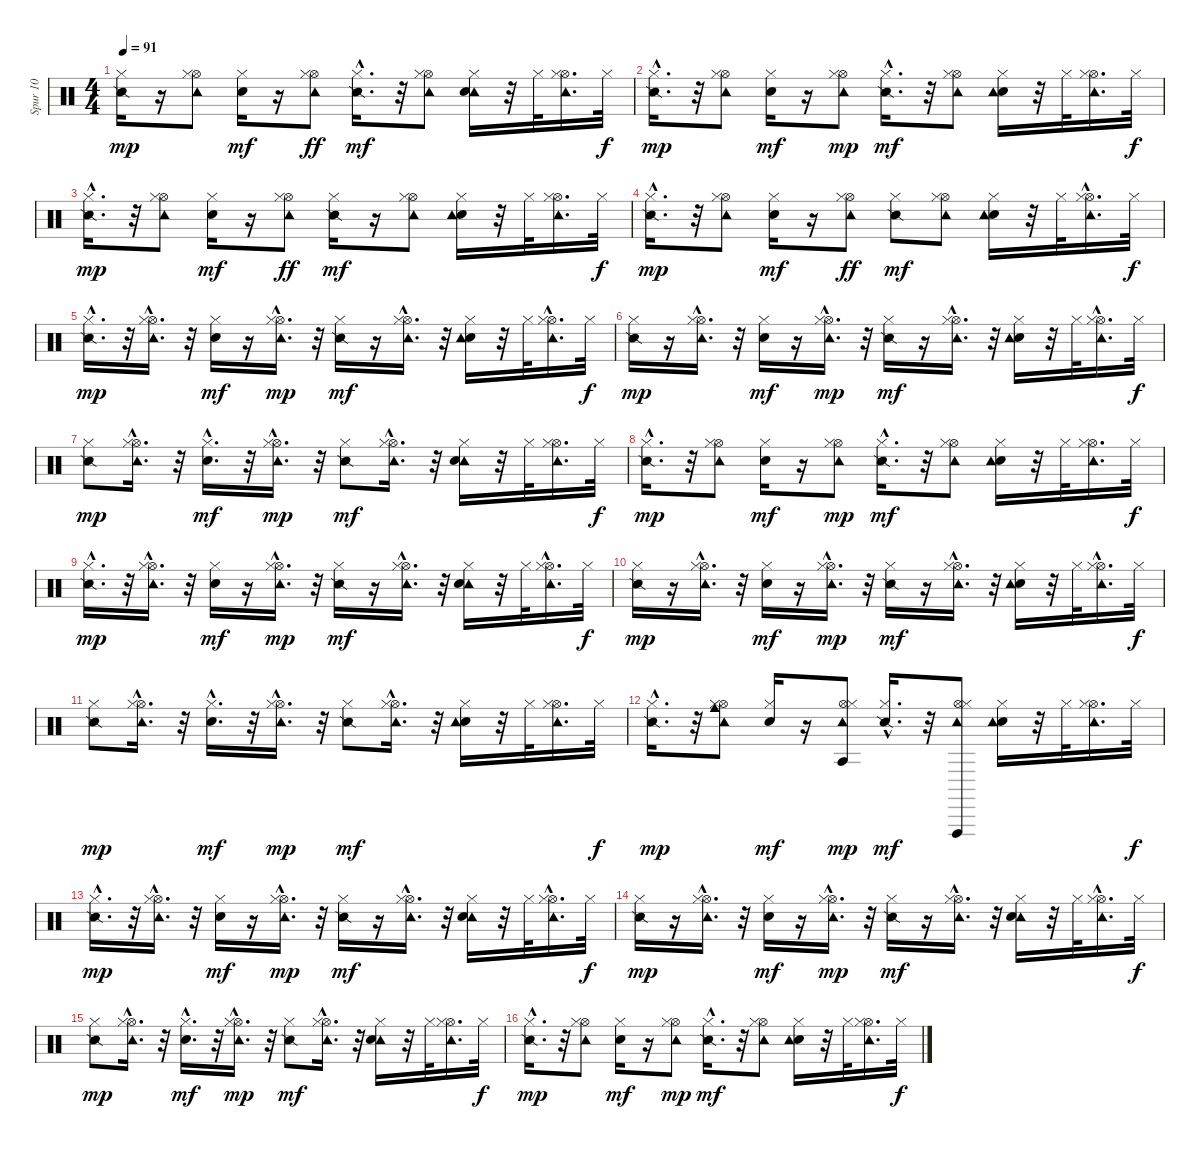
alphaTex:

\track ("Spur 10" "Spur 10") {instrument percussion}
\staff {score}
\articulation defaults
\ts (4 4)
\tempo 91
\clef neutral
\ks c
("Snare (side stick) 2" "Hi-Hat (closed)").16{dy mp} r.16 ("Tambourine (hit)" "Hi-Hat (open)" "Hi-Hat (closed)").8 ("Electric Snare (hit)" "Hi-Hat (closed)").16{dy mf} r.16 ("Tambourine (hit)" "Hi-Hat (open)" "Hi-Hat (closed)").8{dy ff} ("Snare (side stick) 2"{hac} "Hi-Hat (closed)").16{d dy mf} r.32 ("Tambourine (hit)" "Hi-Hat (open)" "Hi-Hat (closed)").8 ("Tambourine (hit)" "Electric Snare (hit)" "Hi-Hat (closed)").16 r.32 "Hi-Hat (closed)".32 ("Tambourine (hit)" "Hi-Hat (open)" "Hi-Hat (closed)").16{d} "Hi-Hat (closed)".32{dy f} |
("Snare (side stick) 2"{hac} "Hi-Hat (closed)").16{d dy mp} r.32 ("Tambourine (hit)" "Hi-Hat (open)" "Hi-Hat (closed)").8 ("Electric Snare (hit)" "Hi-Hat (closed)").16{dy mf} r.16 ("Tambourine (hit)" "Hi-Hat (open)" "Hi-Hat (closed)").8{dy mp} ("Snare (side stick) 2"{hac} "Hi-Hat (closed)").16{d dy mf} r.32 ("Tambourine (hit)" "Hi-Hat (open)" "Hi-Hat (closed)").8 ("Electric Snare (hit)" "Tambourine (hit)" "Hi-Hat (closed)").16 r.32 "Hi-Hat (closed)".32 ("Tambourine (hit)" "Hi-Hat (open)" "Hi-Hat (closed)").16{d} "Hi-Hat (closed)".32{dy f} |
("Snare (side stick) 2"{hac} "Hi-Hat (closed)").16{d dy mp} r.32 ("Tambourine (hit)" "Hi-Hat (open)" "Hi-Hat (closed)").8 ("Electric Snare (hit)" "Hi-Hat (closed)").16{dy mf} r.16 ("Tambourine (hit)" "Hi-Hat (open)" "Hi-Hat (closed)").8{dy ff} ("Snare (side stick) 2" "Hi-Hat (closed)").16{dy mf} r.16 ("Tambourine (hit)" "Hi-Hat (open)" "Hi-Hat (closed)").8 ("Electric Snare (hit)" "Tambourine (hit)" "Hi-Hat (closed)").16 r.32 "Hi-Hat (closed)".32 ("Tambourine (hit)" "Hi-Hat (open)" "Hi-Hat (closed)").16{d} "Hi-Hat (closed)".32{dy f} |
("Snare (side stick) 2"{hac} "Hi-Hat (closed)").16{d dy mp} r.32 ("Tambourine (hit)" "Hi-Hat (open)" "Hi-Hat (closed)").8 ("Electric Snare (hit)" "Hi-Hat (closed)").16{dy mf} r.16 ("Tambourine (hit)" "Hi-Hat (open)" "Hi-Hat (closed)").8{dy ff} ("Snare (side stick) 2" "Hi-Hat (closed)").8{dy mf} ("Tambourine (hit)" "Hi-Hat (open)" "Hi-Hat (closed)").8 ("Electric Snare (hit)" "Tambourine (hit)" "Hi-Hat (closed)").16 r.32 "Hi-Hat (closed)".32 ("Tambourine (hit)" "Hi-Hat (open)"{hac} "Hi-Hat (closed)").16{d} "Hi-Hat (closed)".32{dy f} |
("Snare (side stick) 2"{hac} "Hi-Hat (closed)").16{d dy mp} r.32 ("Tambourine (hit)" "Hi-Hat (open)"{hac} "Hi-Hat (closed)").16{d} r.32 ("Electric Snare (hit)" "Hi-Hat (closed)").16{dy mf} r.16 ("Tambourine (hit)" "Hi-Hat (open)"{hac} "Hi-Hat (closed)").16{d dy mp} r.32 ("Snare (side stick) 2" "Hi-Hat (closed)").16{dy mf} r.16 ("Tambourine (hit)" "Hi-Hat (open)"{hac} "Hi-Hat (closed)").16{d} r.32 ("Electric Snare (hit)" "Tambourine (hit)" "Hi-Hat (closed)").16 r.32 "Hi-Hat (closed)".32 ("Tambourine (hit)" "Hi-Hat (open)"{hac} "Hi-Hat (closed)").16{d} "Hi-Hat (closed)".32{dy f} |
("Snare (side stick) 2" "Hi-Hat (closed)").16{dy mp} r.16 ("Tambourine (hit)" "Hi-Hat (open)"{hac} "Hi-Hat (closed)").16{d} r.32 ("Electric Snare (hit)" "Hi-Hat (closed)").16{dy mf} r.16 ("Tambourine (hit)" "Hi-Hat (open)"{hac} "Hi-Hat (closed)").16{d dy mp} r.32 ("Snare (side stick) 2" "Hi-Hat (closed)").16{dy mf} r.16 ("Tambourine (hit)" "Hi-Hat (open)"{hac} "Hi-Hat (closed)").16{d} r.32 ("Electric Snare (hit)" "Tambourine (hit)" "Hi-Hat (closed)").16 r.32 "Hi-Hat (closed)".32 ("Tambourine (hit)" "Hi-Hat (open)"{hac} "Hi-Hat (closed)").16{d} "Hi-Hat (closed)".32{dy f} |
("Snare (side stick) 2" "Hi-Hat (closed)").8{dy mp} ("Tambourine (hit)" "Hi-Hat (open)"{hac} "Hi-Hat (closed)").16{d} r.32 ("Electric Snare (hit)"{hac} "Hi-Hat (closed)").16{d dy mf} r.32 ("Tambourine (hit)" "Hi-Hat (open)"{hac} "Hi-Hat (closed)").16{d dy mp} r.32 ("Snare (side stick) 2" "Hi-Hat (closed)").8{dy mf} ("Tambourine (hit)" "Hi-Hat (open)"{hac} "Hi-Hat (closed)").16{d} r.32 ("Tambourine (hit)" "Electric Snare (hit)" "Hi-Hat (closed)").16 r.32 "Hi-Hat (closed)".32 ("Tambourine (hit)" "Hi-Hat (open)" "Hi-Hat (closed)").16{d} "Hi-Hat (closed)".32{dy f} |
("Snare (side stick) 2"{hac} "Hi-Hat (closed)").16{d dy mp} r.32 ("Tambourine (hit)" "Hi-Hat (open)" "Hi-Hat (closed)").8 ("Electric Snare (hit)" "Hi-Hat (closed)").16{dy mf} r.16 ("Tambourine (hit)" "Hi-Hat (open)" "Hi-Hat (closed)").8{dy mp} ("Snare (side stick) 2"{hac} "Hi-Hat (closed)").16{d dy mf} r.32 ("Tambourine (hit)" "Hi-Hat (open)" "Hi-Hat (closed)").8 ("Electric Snare (hit)" "Tambourine (hit)" "Hi-Hat (closed)").16 r.32 "Hi-Hat (closed)".32 ("Tambourine (hit)" "Hi-Hat (open)" "Hi-Hat (closed)").16{d} "Hi-Hat (closed)".32{dy f} |
("Snare (side stick) 2"{hac} "Hi-Hat (closed)").16{d dy mp} r.32 ("Tambourine (hit)" "Hi-Hat (open)"{hac} "Hi-Hat (closed)").16{d} r.32 ("Electric Snare (hit)" "Hi-Hat (closed)").16{dy mf} r.16 ("Tambourine (hit)" "Hi-Hat (open)"{hac} "Hi-Hat (closed)").16{d dy mp} r.32 ("Snare (side stick) 2" "Hi-Hat (closed)").16{dy mf} r.16 ("Tambourine (hit)" "Hi-Hat (open)"{hac} "Hi-Hat (closed)").16{d} r.32 ("Tambourine (hit)" "Electric Snare (hit)" "Hi-Hat (closed)").16 r.32 "Hi-Hat (closed)".32 ("Tambourine (hit)" "Hi-Hat (open)"{hac} "Hi-Hat (closed)").16{d} "Hi-Hat (closed)".32{dy f} |
("Snare (side stick) 2" "Hi-Hat (closed)").16{dy mp} r.16 ("Tambourine (hit)" "Hi-Hat (open)"{hac} "Hi-Hat (closed)").16{d} r.32 ("Electric Snare (hit)" "Hi-Hat (closed)").16{dy mf} r.16 ("Tambourine (hit)" "Hi-Hat (open)"{hac} "Hi-Hat (closed)").16{d dy mp} r.32 ("Snare (side stick) 2" "Hi-Hat (closed)").16{dy mf} r.16 ("Tambourine (hit)" "Hi-Hat (open)"{hac} "Hi-Hat (closed)").16{d} r.32 ("Electric Snare (hit)" "Tambourine (hit)" "Hi-Hat (closed)").16 r.32 "Hi-Hat (closed)".32 ("Tambourine (hit)" "Hi-Hat (open)"{hac} "Hi-Hat (closed)").16{d} "Hi-Hat (closed)".32{dy f} |
("Snare (side stick) 2" "Hi-Hat (closed)").8{dy mp} ("Tambourine (hit)" "Hi-Hat (open)"{hac} "Hi-Hat (closed)").16{d} r.32 ("Electric Snare (hit)"{hac} "Hi-Hat (closed)").16{d dy mf} r.32 ("Tambourine (hit)" "Hi-Hat (open)"{hac} "Hi-Hat (closed)").16{d dy mp} r.32 ("Snare (side stick) 2" "Hi-Hat (closed)").8{dy mf} ("Tambourine (hit)" "Hi-Hat (open)"{hac} "Hi-Hat (closed)").16{d} r.32 ("Electric Snare (hit)" "Tambourine (hit)" "Hi-Hat (closed)").16 r.32 "Hi-Hat (closed)".32 ("Tambourine (hit)" "Hi-Hat (open)" "Hi-Hat (closed)").16{d} "Hi-Hat (closed)".32{dy f} |
("Snare (side stick) 2"{hac} "Hi-Hat (closed)").16{d dy mp} r.32 ("Tambourine (hit)" "Hi-Hat (open)" "Cowbell medium (hit)" "Hi-Hat (closed)").8 ("Electric Snare (hit)" "Hi-Hat (closed)").16{dy mf} r.16 ("Tambourine (hit)" "Hi-Hat (open)" "Hi-Hat (closed)" "Agogo tow (hit)").8{dy mp} ("Snare (side stick) 2"{hac} "Hi-Hat (closed)").16{d dy mf} r.32 ("Tambourine (hit)" "Vibraslap (hit)" "Hi-Hat (open)" "Hi-Hat (closed)").8 ("Electric Snare (hit)" "Tambourine (hit)" "Hi-Hat (closed)").16 r.32 "Hi-Hat (closed)".32 ("Tambourine (hit)" "Hi-Hat (open)" "Hi-Hat (closed)").16{d} "Hi-Hat (closed)".32{dy f} |
("Snare (side stick) 2"{hac} "Hi-Hat (closed)").16{d dy mp} r.32 ("Tambourine (hit)" "Hi-Hat (open)"{hac} "Hi-Hat (closed)").16{d} r.32 ("Electric Snare (hit)" "Hi-Hat (closed)").16{dy mf} r.16 ("Tambourine (hit)" "Hi-Hat (open)"{hac} "Hi-Hat (closed)").16{d dy mp} r.32 ("Snare (side stick) 2" "Hi-Hat (closed)").16{dy mf} r.16 ("Tambourine (hit)" "Hi-Hat (open)"{hac} "Hi-Hat (closed)").16{d} r.32 ("Tambourine (hit)" "Electric Snare (hit)" "Hi-Hat (closed)").16 r.32 "Hi-Hat (closed)".32 ("Tambourine (hit)" "Hi-Hat (open)"{hac} "Hi-Hat (closed)").16{d} "Hi-Hat (closed)".32{dy f} |
("Snare (side stick) 2" "Hi-Hat (closed)").16{dy mp} r.16 ("Tambourine (hit)" "Hi-Hat (open)"{hac} "Hi-Hat (closed)").16{d} r.32 ("Electric Snare (hit)" "Hi-Hat (closed)").16{dy mf} r.16 ("Tambourine (hit)" "Hi-Hat (open)"{hac} "Hi-Hat (closed)").16{d dy mp} r.32 ("Snare (side stick) 2" "Hi-Hat (closed)").16{dy mf} r.16 ("Tambourine (hit)" "Hi-Hat (open)"{hac} "Hi-Hat (closed)").16{d} r.32 ("Tambourine (hit)" "Electric Snare (hit)" "Hi-Hat (closed)").16 r.32 "Hi-Hat (closed)".32 ("Tambourine (hit)" "Hi-Hat (open)"{hac} "Hi-Hat (closed)").16{d} "Hi-Hat (closed)".32{dy f} |
("Snare (side stick) 2" "Hi-Hat (closed)").8{dy mp} ("Tambourine (hit)" "Hi-Hat (open)"{hac} "Hi-Hat (closed)").16{d} r.32 ("Electric Snare (hit)"{hac} "Hi-Hat (closed)").16{d dy mf} r.32 ("Tambourine (hit)" "Hi-Hat (open)"{hac} "Hi-Hat (closed)").16{d dy mp} r.32 ("Snare (side stick) 2" "Hi-Hat (closed)").8{dy mf} ("Tambourine (hit)" "Hi-Hat (open)"{hac} "Hi-Hat (closed)").16{d} r.32 ("Tambourine (hit)" "Electric Snare (hit)" "Hi-Hat (closed)").16 r.32 "Hi-Hat (closed)".32 ("Tambourine (hit)" "Hi-Hat (open)" "Hi-Hat (closed)").16{d} "Hi-Hat (closed)".32{dy f} |
("Snare (side stick) 2"{hac} "Hi-Hat (closed)").16{d dy mp} r.32 ("Tambourine (hit)" "Hi-Hat (open)" "Hi-Hat (closed)").8 ("Electric Snare (hit)" "Hi-Hat (closed)").16{dy mf} r.16 ("Tambourine (hit)" "Hi-Hat (open)" "Hi-Hat (closed)").8{dy mp} ("Snare (side stick) 2"{hac} "Hi-Hat (closed)").16{d dy mf} r.32 ("Tambourine (hit)" "Hi-Hat (open)" "Hi-Hat (closed)").8 ("Electric Snare (hit)" "Tambourine (hit)" "Hi-Hat (closed)").16 r.32 "Hi-Hat (closed)".32 ("Tambourine (hit)" "Hi-Hat (open)" "Hi-Hat (closed)").16{d} "Hi-Hat (closed)".32{dy f}
